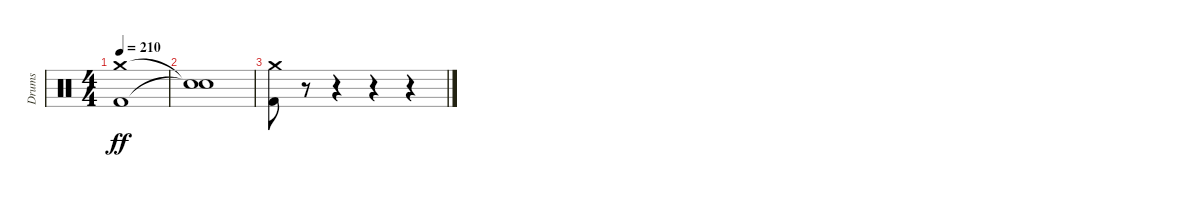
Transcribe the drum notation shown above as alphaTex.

\track ("Drums" "Drums") {instrument percussion}
\staff {score}
\articulation defaults
\ts (4 4)
\tempo 210
\clef neutral
\ks c
("Crash medium (hit)" "Kick (hit) 2").1{dy ff} |
("Snare (hit)"{t} "Snare (hit)"{t}).1 |
("Crash medium (hit)" "Kick (hit) 2").8 r.8 r.4 r.4 r.4
